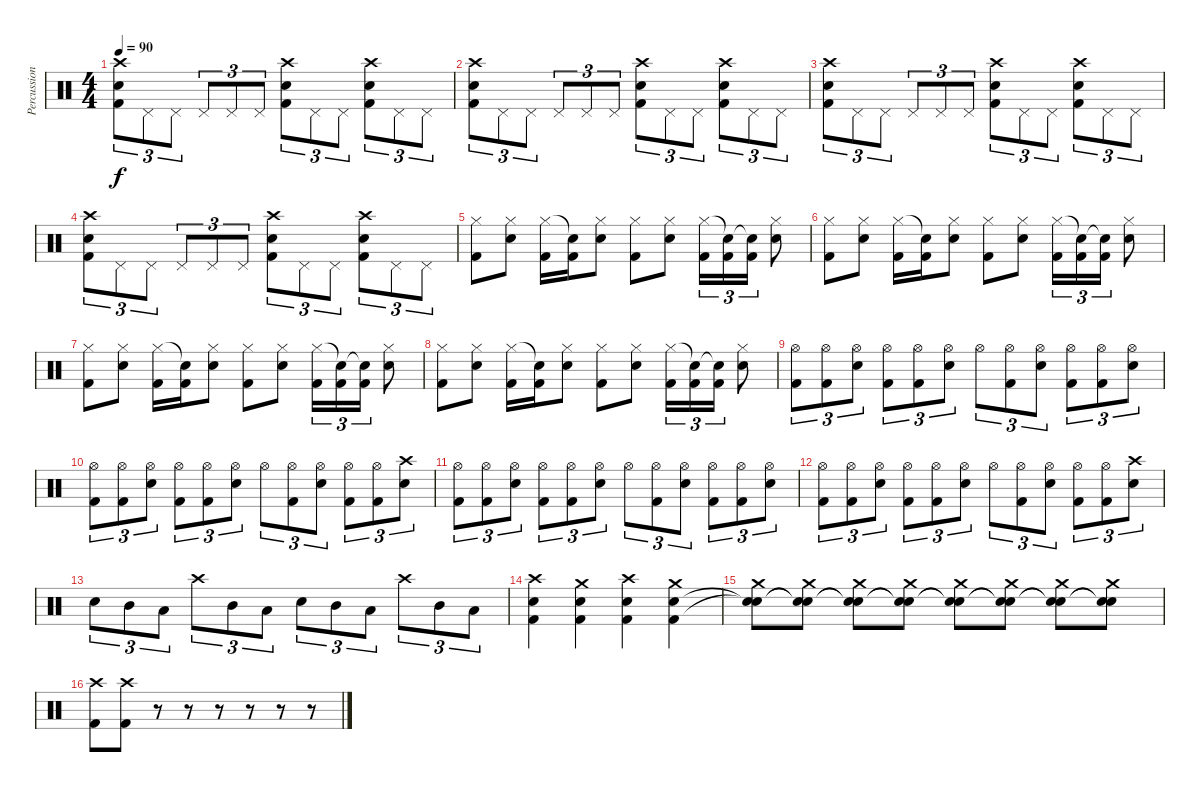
\track ("Percussion" "Percussion") {instrument percussion}
\staff {score}
\articulation defaults
\ts (4 4)
\tempo 90
\clef neutral
\ks c
("Crash high (hit)" "Electric Snare (hit)" "Kick (hit) 2").8{tu (3 2) dy f} "Pedal Hi-Hat (hit)".8{tu (3 2)} "Pedal Hi-Hat (hit)".8{tu (3 2)} "Pedal Hi-Hat (hit)".8{tu (3 2)} "Pedal Hi-Hat (hit)".8{tu (3 2)} "Pedal Hi-Hat (hit)".8{tu (3 2)} ("Crash high (hit)" "Electric Snare (hit)" "Kick (hit) 2").8{tu (3 2)} "Pedal Hi-Hat (hit)".8{tu (3 2)} "Pedal Hi-Hat (hit)".8{tu (3 2)} ("Crash high (hit)" "Electric Snare (hit)" "Kick (hit) 2").8{tu (3 2)} "Pedal Hi-Hat (hit)".8{tu (3 2)} "Pedal Hi-Hat (hit)".8{tu (3 2)} |
("Crash high (hit)" "Electric Snare (hit)" "Kick (hit) 2").8{tu (3 2)} "Pedal Hi-Hat (hit)".8{tu (3 2)} "Pedal Hi-Hat (hit)".8{tu (3 2)} "Pedal Hi-Hat (hit)".8{tu (3 2)} "Pedal Hi-Hat (hit)".8{tu (3 2)} "Pedal Hi-Hat (hit)".8{tu (3 2)} ("Crash high (hit)" "Electric Snare (hit)" "Kick (hit) 2").8{tu (3 2)} "Pedal Hi-Hat (hit)".8{tu (3 2)} "Pedal Hi-Hat (hit)".8{tu (3 2)} ("Crash high (hit)" "Electric Snare (hit)" "Kick (hit) 2").8{tu (3 2)} "Pedal Hi-Hat (hit)".8{tu (3 2)} "Pedal Hi-Hat (hit)".8{tu (3 2)} |
("Crash high (hit)" "Electric Snare (hit)" "Kick (hit) 2").8{tu (3 2)} "Pedal Hi-Hat (hit)".8{tu (3 2)} "Pedal Hi-Hat (hit)".8{tu (3 2)} "Pedal Hi-Hat (hit)".8{tu (3 2)} "Pedal Hi-Hat (hit)".8{tu (3 2)} "Pedal Hi-Hat (hit)".8{tu (3 2)} ("Crash high (hit)" "Electric Snare (hit)" "Kick (hit) 2").8{tu (3 2)} "Pedal Hi-Hat (hit)".8{tu (3 2)} "Pedal Hi-Hat (hit)".8{tu (3 2)} ("Crash high (hit)" "Electric Snare (hit)" "Kick (hit) 2").8{tu (3 2)} "Pedal Hi-Hat (hit)".8{tu (3 2)} "Pedal Hi-Hat (hit)".8{tu (3 2)} |
("Crash high (hit)" "Electric Snare (hit)" "Kick (hit) 2").8{tu (3 2)} "Pedal Hi-Hat (hit)".8{tu (3 2)} "Pedal Hi-Hat (hit)".8{tu (3 2)} "Pedal Hi-Hat (hit)".8{tu (3 2)} "Pedal Hi-Hat (hit)".8{tu (3 2)} "Pedal Hi-Hat (hit)".8{tu (3 2)} ("Crash high (hit)" "Electric Snare (hit)" "Kick (hit) 2").8{tu (3 2)} "Pedal Hi-Hat (hit)".8{tu (3 2)} "Pedal Hi-Hat (hit)".8{tu (3 2)} ("Crash high (hit)" "Electric Snare (hit)" "Kick (hit) 2").8{tu (3 2)} "Pedal Hi-Hat (hit)".8{tu (3 2)} "Pedal Hi-Hat (hit)".8{tu (3 2)} |
("Hi-Hat (closed)" "Kick (hit) 2").8 ("Hi-Hat (closed)" "Electric Snare (hit)").8 ("Hi-Hat (closed)" "Kick (hit) 2").16 ("Snare (hit)"{t} "Kick (hit) 2").16 ("Hi-Hat (closed)" "Electric Snare (hit)").8 ("Hi-Hat (closed)" "Kick (hit) 2").8 ("Hi-Hat (closed)" "Electric Snare (hit)").8 ("Hi-Hat (closed)" "Kick (hit) 2").16{tu (3 2)} ("Snare (hit)"{t} "Kick (hit) 2").16{tu (3 2)} ("Snare (hit)"{t} "Kick (hit) 2").16{tu (3 2)} ("Hi-Hat (closed)" "Electric Snare (hit)").8 |
("Hi-Hat (closed)" "Kick (hit) 2").8 ("Hi-Hat (closed)" "Electric Snare (hit)").8 ("Hi-Hat (closed)" "Kick (hit) 2").16 ("Snare (hit)"{t} "Kick (hit) 2").16 ("Hi-Hat (closed)" "Electric Snare (hit)").8 ("Hi-Hat (closed)" "Kick (hit) 2").8 ("Hi-Hat (closed)" "Electric Snare (hit)").8 ("Hi-Hat (closed)" "Kick (hit) 2").16{tu (3 2)} ("Snare (hit)"{t} "Kick (hit) 2").16{tu (3 2)} ("Snare (hit)"{t} "Kick (hit) 2").16{tu (3 2)} ("Hi-Hat (closed)" "Electric Snare (hit)").8 |
("Hi-Hat (closed)" "Kick (hit) 2").8 ("Hi-Hat (closed)" "Electric Snare (hit)").8 ("Hi-Hat (closed)" "Kick (hit) 2").16 ("Snare (hit)"{t} "Kick (hit) 2").16 ("Hi-Hat (closed)" "Electric Snare (hit)").8 ("Hi-Hat (closed)" "Kick (hit) 2").8 ("Hi-Hat (closed)" "Electric Snare (hit)").8 ("Hi-Hat (closed)" "Kick (hit) 2").16{tu (3 2)} ("Snare (hit)"{t} "Kick (hit) 2").16{tu (3 2)} ("Snare (hit)"{t} "Kick (hit) 2").16{tu (3 2)} ("Hi-Hat (closed)" "Electric Snare (hit)").8 |
("Hi-Hat (closed)" "Kick (hit) 2").8 ("Hi-Hat (closed)" "Electric Snare (hit)").8 ("Hi-Hat (closed)" "Kick (hit) 2").16 ("Snare (hit)"{t} "Kick (hit) 2").16 ("Hi-Hat (closed)" "Electric Snare (hit)").8 ("Hi-Hat (closed)" "Kick (hit) 2").8 ("Hi-Hat (closed)" "Electric Snare (hit)").8 ("Hi-Hat (closed)" "Kick (hit) 2").16{tu (3 2)} ("Snare (hit)"{t} "Kick (hit) 2").16{tu (3 2)} ("Snare (hit)"{t} "Kick (hit) 2").16{tu (3 2)} ("Hi-Hat (closed)" "Electric Snare (hit)").8 |
("Hi-Hat (open)" "Kick (hit) 2").8{tu (3 2)} ("Hi-Hat (open)" "Kick (hit) 2").8{tu (3 2)} ("Hi-Hat (open)" "Electric Snare (hit)").8{tu (3 2)} ("Hi-Hat (open)" "Kick (hit) 2").8{tu (3 2)} ("Hi-Hat (open)" "Kick (hit) 2").8{tu (3 2)} ("Hi-Hat (open)" "Electric Snare (hit)").8{tu (3 2)} "Hi-Hat (open)".8{tu (3 2)} ("Hi-Hat (open)" "Kick (hit) 2").8{tu (3 2)} ("Hi-Hat (open)" "Electric Snare (hit)").8{tu (3 2)} ("Hi-Hat (open)" "Kick (hit) 2").8{tu (3 2)} ("Hi-Hat (open)" "Kick (hit) 2").8{tu (3 2)} ("Hi-Hat (open)" "Electric Snare (hit)").8{tu (3 2)} |
("Hi-Hat (open)" "Kick (hit) 2").8{tu (3 2)} ("Hi-Hat (open)" "Kick (hit) 2").8{tu (3 2)} ("Hi-Hat (open)" "Electric Snare (hit)").8{tu (3 2)} ("Hi-Hat (open)" "Kick (hit) 2").8{tu (3 2)} ("Hi-Hat (open)" "Kick (hit) 2").8{tu (3 2)} ("Hi-Hat (open)" "Electric Snare (hit)").8{tu (3 2)} "Hi-Hat (open)".8{tu (3 2)} ("Hi-Hat (open)" "Kick (hit) 2").8{tu (3 2)} ("Hi-Hat (open)" "Electric Snare (hit)").8{tu (3 2)} ("Hi-Hat (open)" "Kick (hit) 2").8{tu (3 2)} ("Hi-Hat (open)" "Kick (hit) 2").8{tu (3 2)} ("Crash high (hit)" "Electric Snare (hit)").8{tu (3 2)} |
("Hi-Hat (open)" "Kick (hit) 2").8{tu (3 2)} ("Hi-Hat (open)" "Kick (hit) 2").8{tu (3 2)} ("Hi-Hat (open)" "Electric Snare (hit)").8{tu (3 2)} ("Hi-Hat (open)" "Kick (hit) 2").8{tu (3 2)} ("Hi-Hat (open)" "Kick (hit) 2").8{tu (3 2)} ("Hi-Hat (open)" "Electric Snare (hit)").8{tu (3 2)} "Hi-Hat (open)".8{tu (3 2)} ("Hi-Hat (open)" "Kick (hit) 2").8{tu (3 2)} ("Hi-Hat (open)" "Electric Snare (hit)").8{tu (3 2)} ("Hi-Hat (open)" "Kick (hit) 2").8{tu (3 2)} ("Hi-Hat (open)" "Kick (hit) 2").8{tu (3 2)} ("Hi-Hat (open)" "Electric Snare (hit)").8{tu (3 2)} |
("Hi-Hat (open)" "Kick (hit) 2").8{tu (3 2)} ("Hi-Hat (open)" "Kick (hit) 2").8{tu (3 2)} ("Hi-Hat (open)" "Electric Snare (hit)").8{tu (3 2)} ("Hi-Hat (open)" "Kick (hit) 2").8{tu (3 2)} ("Hi-Hat (open)" "Kick (hit) 2").8{tu (3 2)} ("Hi-Hat (open)" "Electric Snare (hit)").8{tu (3 2)} "Hi-Hat (open)".8{tu (3 2)} ("Hi-Hat (open)" "Kick (hit) 2").8{tu (3 2)} ("Hi-Hat (open)" "Electric Snare (hit)").8{tu (3 2)} ("Hi-Hat (open)" "Kick (hit) 2").8{tu (3 2)} ("Hi-Hat (open)" "Kick (hit) 2").8{tu (3 2)} ("Crash high (hit)" "Electric Snare (hit)").8{tu (3 2)} |
"Electric Snare (hit)".8{tu (3 2)} "Mid Tom (hit)".8{tu (3 2)} "Low Tom (hit)".8{tu (3 2)} "Crash high (hit)".8{tu (3 2)} "Mid Tom (hit)".8{tu (3 2)} "Low Tom (hit)".8{tu (3 2)} "Electric Snare (hit)".8{tu (3 2)} "Mid Tom (hit)".8{tu (3 2)} "Low Tom (hit)".8{tu (3 2)} "Crash high (hit)".8{tu (3 2)} "Mid Tom (hit)".8{tu (3 2)} "Low Tom (hit)".8{tu (3 2)} |
("Crash high (hit)" "Electric Snare (hit)" "Kick (hit) 2").4 ("Crash medium (hit)" "Electric Snare (hit)" "Kick (hit) 2").4 ("Crash high (hit)" "Electric Snare (hit)" "Kick (hit) 2").4 ("Crash medium (hit)" "Electric Snare (hit)" "Kick (hit) 2").4 |
("Crash medium (hit)" "Snare (hit)"{t} "Snare (hit)"{t}).8 ("Crash medium (hit)" "Snare (hit)"{t} "Snare (hit)"{t}).8 ("Crash medium (hit)" "Snare (hit)"{t} "Snare (hit)"{t}).8 ("Crash medium (hit)" "Snare (hit)"{t} "Snare (hit)"{t}).8 ("Crash medium (hit)" "Snare (hit)"{t} "Snare (hit)"{t}).8 ("Crash medium (hit)" "Snare (hit)"{t} "Snare (hit)"{t}).8 ("Crash medium (hit)" "Snare (hit)"{t} "Snare (hit)"{t}).8 ("Crash medium (hit)" "Snare (hit)"{t} "Snare (hit)"{t}).8 |
("Crash high (hit)" "Kick (hit) 2").8 ("Crash high (hit)" "Kick (hit) 2").8 r.8 r.8 r.8 r.8 r.8 r.8
